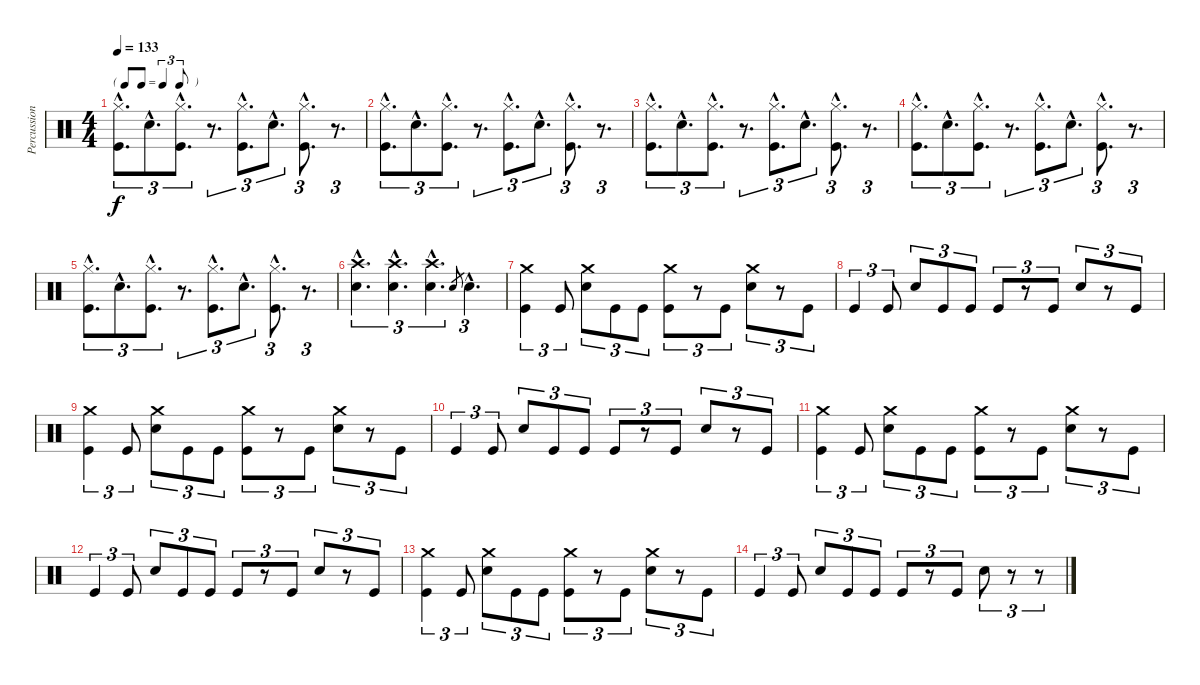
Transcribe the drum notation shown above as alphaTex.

\track ("Percussion" "Percussion") {instrument percussion}
\staff {score}
\articulation defaults
\ts (4 4)
\tf triplet8th
\tempo 133
\clef neutral
\ks c
("Kick (hit)"{hac} "Hi-Hat (closed)"{hac}).8{d tu (3 2) dy f} "Snare (hit) 2"{hac}.8{d tu (3 2)} ("Kick (hit)"{hac} "Hi-Hat (closed)"{hac}).8{d tu (3 2)} r.8{d tu (3 2)} ("Kick (hit)"{hac} "Hi-Hat (closed)"{hac}).8{d tu (3 2)} "Snare (hit) 2"{hac}.8{d tu (3 2)} ("Kick (hit)"{hac} "Hi-Hat (closed)"{hac}).8{d tu (3 2)} r.8{d tu (3 2)} |
("Kick (hit)"{hac} "Hi-Hat (closed)"{hac}).8{d tu (3 2)} "Snare (hit) 2"{hac}.8{d tu (3 2)} ("Kick (hit)"{hac} "Hi-Hat (closed)"{hac}).8{d tu (3 2)} r.8{d tu (3 2)} ("Kick (hit)"{hac} "Hi-Hat (closed)"{hac}).8{d tu (3 2)} "Snare (hit) 2"{hac}.8{d tu (3 2)} ("Kick (hit)"{hac} "Hi-Hat (closed)"{hac}).8{d tu (3 2)} r.8{d tu (3 2)} |
("Kick (hit)"{hac} "Hi-Hat (closed)"{hac}).8{d tu (3 2)} "Snare (hit) 2"{hac}.8{d tu (3 2)} ("Kick (hit)"{hac} "Hi-Hat (closed)"{hac}).8{d tu (3 2)} r.8{d tu (3 2)} ("Kick (hit)"{hac} "Hi-Hat (closed)"{hac}).8{d tu (3 2)} "Snare (hit) 2"{hac}.8{d tu (3 2)} ("Kick (hit)"{hac} "Hi-Hat (closed)"{hac}).8{d tu (3 2)} r.8{d tu (3 2)} |
("Kick (hit)"{hac} "Hi-Hat (closed)"{hac}).8{d tu (3 2)} "Snare (hit) 2"{hac}.8{d tu (3 2)} ("Kick (hit)"{hac} "Hi-Hat (closed)"{hac}).8{d tu (3 2)} r.8{d tu (3 2)} ("Kick (hit)"{hac} "Hi-Hat (closed)"{hac}).8{d tu (3 2)} "Snare (hit) 2"{hac}.8{d tu (3 2)} ("Kick (hit)"{hac} "Hi-Hat (closed)"{hac}).8{d tu (3 2)} r.8{d tu (3 2)} |
("Kick (hit)"{hac} "Hi-Hat (closed)"{hac}).8{d tu (3 2)} "Snare (hit) 2"{hac}.8{d tu (3 2)} ("Kick (hit)"{hac} "Hi-Hat (closed)"{hac}).8{d tu (3 2)} r.8{d tu (3 2)} ("Kick (hit)"{hac} "Hi-Hat (closed)"{hac}).8{d tu (3 2)} "Snare (hit) 2"{hac}.8{d tu (3 2)} ("Kick (hit)"{hac} "Hi-Hat (closed)"{hac}).8{d tu (3 2)} r.8{d tu (3 2)} |
("Snare (hit) 2"{hac} "Crash high (hit)"{hac}).4{d tu (3 2)} ("Snare (hit) 2"{hac} "Crash high (hit)"{hac}).4{d tu (3 2)} ("Snare (hit) 2"{hac} "Crash high (hit)"{hac}).4{d tu (3 2)} "Electric Snare (hit)".8{gr} "Electric Snare (hit)"{hac}.4{d tu (3 2)} |
("Kick (hit)" "Crash medium (hit)").4{tu (3 2)} "Kick (hit)".8{tu (3 2)} ("Snare (hit) 2" "Crash medium (hit)").8{tu (3 2)} "Kick (hit)".8{tu (3 2)} "Kick (hit)".8{tu (3 2)} ("Kick (hit)" "Crash medium (hit)").8{tu (3 2)} r.8{tu (3 2)} "Kick (hit)".8{tu (3 2)} ("Snare (hit) 2" "Crash medium (hit)").8{tu (3 2)} r.8{tu (3 2)} "Kick (hit)".8{tu (3 2)} |
"Kick (hit)".4{tu (3 2)} "Kick (hit)".8{tu (3 2)} "Snare (hit) 2".8{tu (3 2)} "Kick (hit)".8{tu (3 2)} "Kick (hit)".8{tu (3 2)} "Kick (hit)".8{tu (3 2)} r.8{tu (3 2)} "Kick (hit)".8{tu (3 2)} "Snare (hit) 2".8{tu (3 2)} r.8{tu (3 2)} "Kick (hit)".8{tu (3 2)} |
("Kick (hit)" "Crash medium (hit)").4{tu (3 2)} "Kick (hit)".8{tu (3 2)} ("Snare (hit) 2" "Crash medium (hit)").8{tu (3 2)} "Kick (hit)".8{tu (3 2)} "Kick (hit)".8{tu (3 2)} ("Kick (hit)" "Crash medium (hit)").8{tu (3 2)} r.8{tu (3 2)} "Kick (hit)".8{tu (3 2)} ("Snare (hit) 2" "Crash medium (hit)").8{tu (3 2)} r.8{tu (3 2)} "Kick (hit)".8{tu (3 2)} |
"Kick (hit)".4{tu (3 2)} "Kick (hit)".8{tu (3 2)} "Snare (hit) 2".8{tu (3 2)} "Kick (hit)".8{tu (3 2)} "Kick (hit)".8{tu (3 2)} "Kick (hit)".8{tu (3 2)} r.8{tu (3 2)} "Kick (hit)".8{tu (3 2)} "Snare (hit) 2".8{tu (3 2)} r.8{tu (3 2)} "Kick (hit)".8{tu (3 2)} |
("Kick (hit)" "Crash medium (hit)").4{tu (3 2)} "Kick (hit)".8{tu (3 2)} ("Snare (hit) 2" "Crash medium (hit)").8{tu (3 2)} "Kick (hit)".8{tu (3 2)} "Kick (hit)".8{tu (3 2)} ("Kick (hit)" "Crash medium (hit)").8{tu (3 2)} r.8{tu (3 2)} "Kick (hit)".8{tu (3 2)} ("Snare (hit) 2" "Crash medium (hit)").8{tu (3 2)} r.8{tu (3 2)} "Kick (hit)".8{tu (3 2)} |
"Kick (hit)".4{tu (3 2)} "Kick (hit)".8{tu (3 2)} "Snare (hit) 2".8{tu (3 2)} "Kick (hit)".8{tu (3 2)} "Kick (hit)".8{tu (3 2)} "Kick (hit)".8{tu (3 2)} r.8{tu (3 2)} "Kick (hit)".8{tu (3 2)} "Snare (hit) 2".8{tu (3 2)} r.8{tu (3 2)} "Kick (hit)".8{tu (3 2)} |
("Kick (hit)" "Crash medium (hit)").4{tu (3 2)} "Kick (hit)".8{tu (3 2)} ("Snare (hit) 2" "Crash medium (hit)").8{tu (3 2)} "Kick (hit)".8{tu (3 2)} "Kick (hit)".8{tu (3 2)} ("Kick (hit)" "Crash medium (hit)").8{tu (3 2)} r.8{tu (3 2)} "Kick (hit)".8{tu (3 2)} ("Snare (hit) 2" "Crash medium (hit)").8{tu (3 2)} r.8{tu (3 2)} "Kick (hit)".8{tu (3 2)} |
"Kick (hit)".4{tu (3 2)} "Kick (hit)".8{tu (3 2)} "Snare (hit) 2".8{tu (3 2)} "Kick (hit)".8{tu (3 2)} "Kick (hit)".8{tu (3 2)} "Kick (hit)".8{tu (3 2)} r.8{tu (3 2)} "Kick (hit)".8{tu (3 2)} "Snare (hit) 2".8{tu (3 2)} r.8{tu (3 2)} r.8{tu (3 2)}
